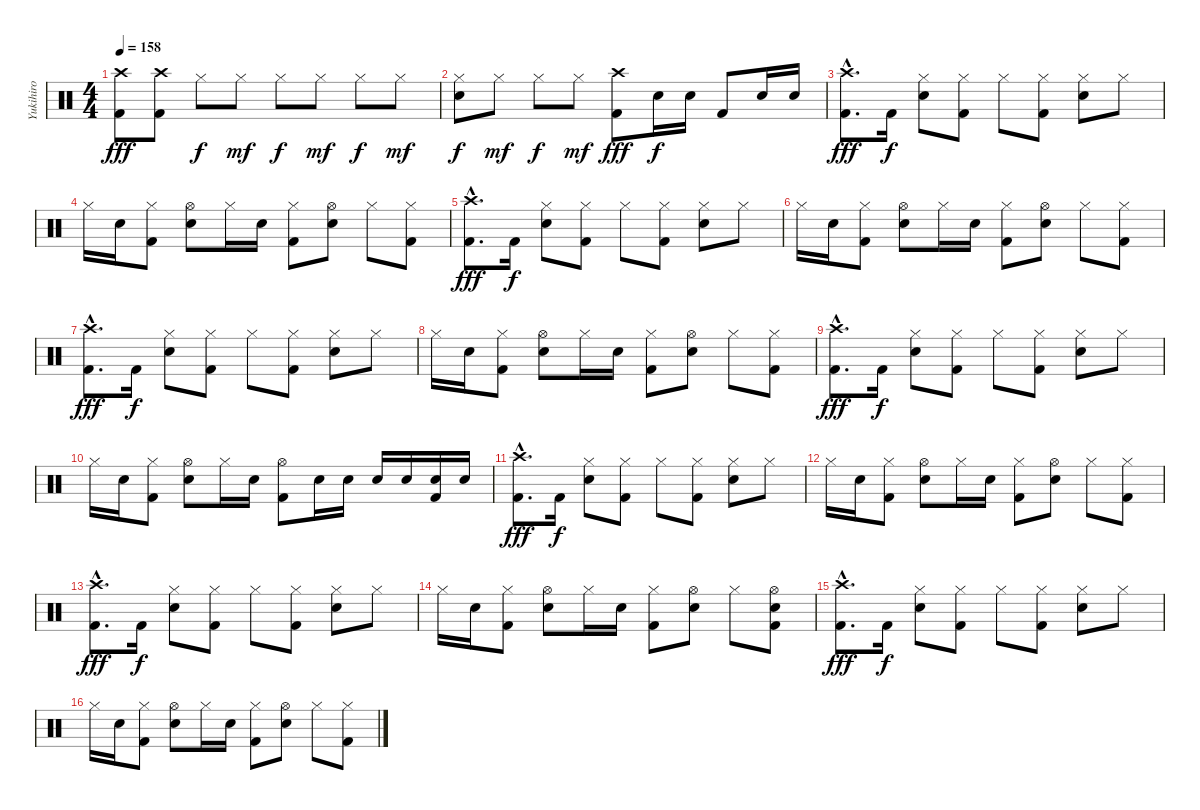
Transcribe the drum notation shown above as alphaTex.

\track ("Yukihiro" "Yukihiro") {instrument percussion}
\staff {score}
\articulation defaults
\ts (4 4)
\tempo 158
\clef neutral
\ks c
("Crash high (hit)" "Kick (hit) 2").8{dy fff} ("Crash high (hit)" "Kick (hit) 2").8 "Hi-Hat (closed)".8{dy f} "Hi-Hat (closed)".8{dy mf} "Hi-Hat (closed)".8{dy f} "Hi-Hat (closed)".8{dy mf} "Hi-Hat (closed)".8{dy f} "Hi-Hat (closed)".8{dy mf} |
("Hi-Hat (closed)" "Snare (hit) 2").8{dy f} "Hi-Hat (closed)".8{dy mf} "Hi-Hat (closed)".8{dy f} "Hi-Hat (closed)".8{dy mf} ("Crash high (hit)" "Kick (hit) 2").8{dy fff} "Snare (hit) 2".16{dy f} "Snare (hit) 2".16 "Kick (hit) 2".8 "Snare (hit) 2".16 "Snare (hit) 2".16 |
("Crash high (hit)"{hac} "Kick (hit) 2"{hac}).8{d dy fff} "Kick (hit) 2".16{dy f} ("Hi-Hat (closed)" "Snare (hit) 2").8 ("Hi-Hat (closed)" "Kick (hit) 2").8 "Hi-Hat (closed)".8 ("Hi-Hat (closed)" "Kick (hit) 2").8 ("Hi-Hat (closed)" "Snare (hit) 2").8 "Hi-Hat (closed)".8 |
"Hi-Hat (closed)".16 "Snare (hit) 2".16 ("Hi-Hat (closed)" "Kick (hit) 2").8 ("Hi-Hat (open)" "Snare (hit) 2").8 "Hi-Hat (closed)".16 "Snare (hit) 2".16 ("Hi-Hat (closed)" "Kick (hit) 2").8 ("Hi-Hat (open)" "Snare (hit) 2").8 "Hi-Hat (closed)".8 ("Hi-Hat (closed)" "Kick (hit) 2").8 |
("Crash high (hit)"{hac} "Kick (hit) 2"{hac}).8{d dy fff} "Kick (hit) 2".16{dy f} ("Hi-Hat (closed)" "Snare (hit) 2").8 ("Hi-Hat (closed)" "Kick (hit) 2").8 "Hi-Hat (closed)".8 ("Hi-Hat (closed)" "Kick (hit) 2").8 ("Hi-Hat (closed)" "Snare (hit) 2").8 "Hi-Hat (closed)".8 |
"Hi-Hat (closed)".16 "Snare (hit) 2".16 ("Hi-Hat (closed)" "Kick (hit) 2").8 ("Hi-Hat (open)" "Snare (hit) 2").8 "Hi-Hat (closed)".16 "Snare (hit) 2".16 ("Hi-Hat (closed)" "Kick (hit) 2").8 ("Hi-Hat (open)" "Snare (hit) 2").8 "Hi-Hat (closed)".8 ("Hi-Hat (closed)" "Kick (hit) 2").8 |
("Crash high (hit)"{hac} "Kick (hit) 2"{hac}).8{d dy fff} "Kick (hit) 2".16{dy f} ("Hi-Hat (closed)" "Snare (hit) 2").8 ("Hi-Hat (closed)" "Kick (hit) 2").8 "Hi-Hat (closed)".8 ("Hi-Hat (closed)" "Kick (hit) 2").8 ("Hi-Hat (closed)" "Snare (hit) 2").8 "Hi-Hat (closed)".8 |
"Hi-Hat (closed)".16 "Snare (hit) 2".16 ("Hi-Hat (closed)" "Kick (hit) 2").8 ("Hi-Hat (open)" "Snare (hit) 2").8 "Hi-Hat (closed)".16 "Snare (hit) 2".16 ("Hi-Hat (closed)" "Kick (hit) 2").8 ("Hi-Hat (open)" "Snare (hit) 2").8 "Hi-Hat (closed)".8 ("Hi-Hat (closed)" "Kick (hit) 2").8 |
("Crash high (hit)"{hac} "Kick (hit) 2"{hac}).8{d dy fff} "Kick (hit) 2".16{dy f} ("Hi-Hat (closed)" "Snare (hit) 2").8 ("Hi-Hat (closed)" "Kick (hit) 2").8 "Hi-Hat (closed)".8 ("Hi-Hat (closed)" "Kick (hit) 2").8 ("Hi-Hat (closed)" "Snare (hit) 2").8 "Hi-Hat (closed)".8 |
"Hi-Hat (closed)".16 "Snare (hit) 2".16 ("Hi-Hat (closed)" "Kick (hit) 2").8 ("Hi-Hat (open)" "Snare (hit) 2").8 "Hi-Hat (closed)".16 "Snare (hit) 2".16 ("Hi-Hat (open)" "Kick (hit) 2").8 "Snare (hit) 2".16 "Snare (hit) 2".16 "Snare (hit) 2".16 "Snare (hit) 2".16 ("Snare (hit) 2" "Kick (hit) 2").16 "Snare (hit) 2".16 |
("Crash high (hit)"{hac} "Kick (hit) 2"{hac}).8{d dy fff} "Kick (hit) 2".16{dy f} ("Hi-Hat (closed)" "Snare (hit) 2").8 ("Hi-Hat (closed)" "Kick (hit) 2").8 "Hi-Hat (closed)".8 ("Hi-Hat (closed)" "Kick (hit) 2").8 ("Hi-Hat (closed)" "Snare (hit) 2").8 "Hi-Hat (closed)".8 |
"Hi-Hat (closed)".16 "Snare (hit) 2".16 ("Hi-Hat (closed)" "Kick (hit) 2").8 ("Hi-Hat (open)" "Snare (hit) 2").8 "Hi-Hat (closed)".16 "Snare (hit) 2".16 ("Hi-Hat (closed)" "Kick (hit) 2").8 ("Hi-Hat (open)" "Snare (hit) 2").8 "Hi-Hat (closed)".8 ("Hi-Hat (closed)" "Kick (hit) 2").8 |
("Crash high (hit)"{hac} "Kick (hit) 2"{hac}).8{d dy fff} "Kick (hit) 2".16{dy f} ("Hi-Hat (closed)" "Snare (hit) 2").8 ("Hi-Hat (closed)" "Kick (hit) 2").8 "Hi-Hat (closed)".8 ("Hi-Hat (closed)" "Kick (hit) 2").8 ("Hi-Hat (closed)" "Snare (hit) 2").8 "Hi-Hat (closed)".8 |
"Hi-Hat (closed)".16 "Snare (hit) 2".16 ("Hi-Hat (closed)" "Kick (hit) 2").8 ("Hi-Hat (open)" "Snare (hit) 2").8 "Hi-Hat (closed)".16 "Snare (hit) 2".16 ("Hi-Hat (closed)" "Kick (hit) 2").8 ("Hi-Hat (open)" "Snare (hit) 2").8 "Hi-Hat (closed)".8 ("Hi-Hat (open)" "Snare (hit) 2" "Kick (hit) 2").8 |
("Crash high (hit)"{hac} "Kick (hit) 2"{hac}).8{d dy fff} "Kick (hit) 2".16{dy f} ("Hi-Hat (closed)" "Snare (hit) 2").8 ("Hi-Hat (closed)" "Kick (hit) 2").8 "Hi-Hat (closed)".8 ("Hi-Hat (closed)" "Kick (hit) 2").8 ("Hi-Hat (closed)" "Snare (hit) 2").8 "Hi-Hat (closed)".8 |
"Hi-Hat (closed)".16 "Snare (hit) 2".16 ("Hi-Hat (closed)" "Kick (hit) 2").8 ("Hi-Hat (open)" "Snare (hit) 2").8 "Hi-Hat (closed)".16 "Snare (hit) 2".16 ("Hi-Hat (closed)" "Kick (hit) 2").8 ("Hi-Hat (open)" "Snare (hit) 2").8 "Hi-Hat (closed)".8 ("Hi-Hat (closed)" "Kick (hit) 2").8
